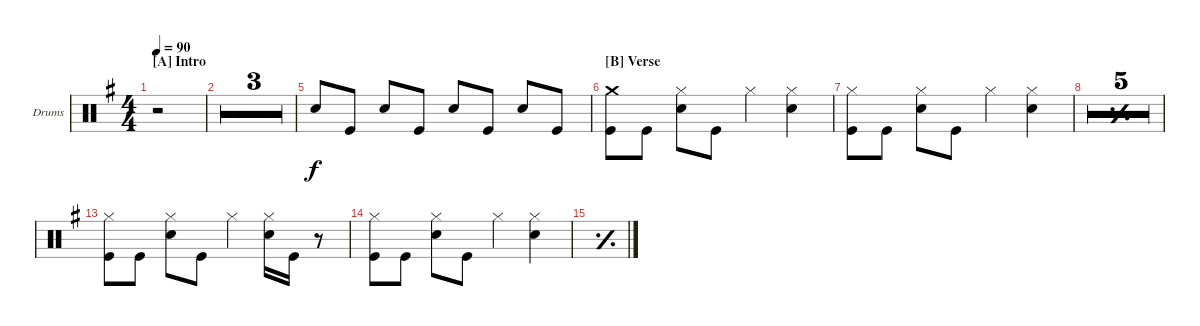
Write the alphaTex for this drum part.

\defaultSystemsLayout 4
\bracketExtendMode groupsimilarinstruments
\firstSystemTrackNameOrientation horizontal
\otherSystemsTrackNameOrientation horizontal
\track ("Matt Helders " "Drums") {multiBarRest instrument percussion}
\staff {score}
\articulation defaults
\ts (4 4)
\section ("A" "Intro")
\ac
\tempo 90
\clef neutral
\ks g
r.2{dy f} |
r.1 |
r.1 |
r.1 |
"Snare (hit) 2".8 "Kick (hit)".8 "Snare (hit) 2".8 "Kick (hit)".8 "Snare (hit) 2".8 "Kick (hit)".8 "Snare (hit) 2".8 "Kick (hit)".8 |
\section ("B" "Verse")
("Kick (hit)" "Crash medium (hit)").8 "Kick (hit)".8 ("Snare (hit) 2" "Hi-Hat (closed)").8 "Kick (hit)".8 "Hi-Hat (closed)".4 ("Snare (hit) 2" "Hi-Hat (closed)").4 |
("Kick (hit)" "Hi-Hat (closed)").8 "Kick (hit)".8 ("Snare (hit) 2" "Hi-Hat (closed)").8 "Kick (hit)".8 "Hi-Hat (closed)".4 ("Snare (hit) 2" "Hi-Hat (closed)").4 |
\simile simple
|
|
|
|
|
\simile none
("Kick (hit)" "Hi-Hat (closed)").8 "Kick (hit)".8 ("Snare (hit) 2" "Hi-Hat (closed)").8 "Kick (hit)".8 "Hi-Hat (closed)".4 ("Snare (hit) 2" "Hi-Hat (closed)").16 "Kick (hit)".16 r.8 |
("Kick (hit)" "Hi-Hat (closed)").8 "Kick (hit)".8 ("Snare (hit) 2" "Hi-Hat (closed)").8 "Kick (hit)".8 "Hi-Hat (closed)".4 ("Snare (hit) 2" "Hi-Hat (closed)").4 |
\simile simple
